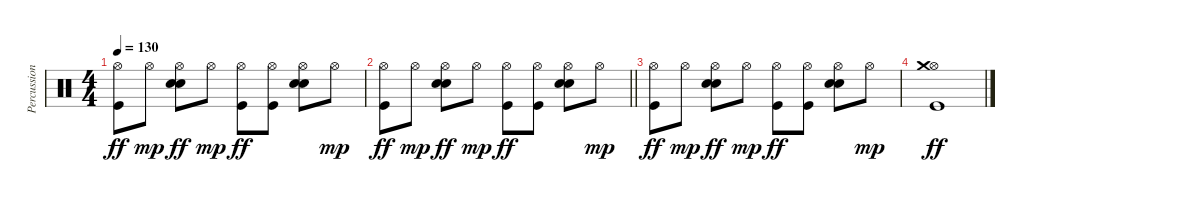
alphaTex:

\track ("Percussions" "Percussion") {instrument percussion}
\staff {score}
\articulation defaults
\ts (4 4)
\tempo 130
\clef neutral
\ks c
("Hi-Hat (open)" "Kick (hit)").8{dy ff} "Hi-Hat (open)".8{dy mp} ("Hi-Hat (open)" "Snare (hit) 2" "Electric Snare (hit)").8{dy ff} "Hi-Hat (open)".8{dy mp} ("Hi-Hat (open)" "Kick (hit)").8{dy ff} ("Hi-Hat (open)" "Kick (hit)").8 ("Hi-Hat (open)" "Snare (hit) 2" "Electric Snare (hit)").8 "Hi-Hat (open)".8{dy mp} |
\barLineRight lightlight
("Hi-Hat (open)" "Kick (hit)").8{dy ff} "Hi-Hat (open)".8{dy mp} ("Hi-Hat (open)" "Snare (hit) 2" "Electric Snare (hit)").8{dy ff} "Hi-Hat (open)".8{dy mp} ("Hi-Hat (open)" "Kick (hit)").8{dy ff} ("Hi-Hat (open)" "Kick (hit)").8 ("Hi-Hat (open)" "Snare (hit) 2" "Electric Snare (hit)").8 "Hi-Hat (open)".8{dy mp} |
("Hi-Hat (open)" "Kick (hit)").8{dy ff} "Hi-Hat (open)".8{dy mp} ("Hi-Hat (open)" "Snare (hit) 2" "Electric Snare (hit)").8{dy ff} "Hi-Hat (open)".8{dy mp} ("Hi-Hat (open)" "Kick (hit)").8{dy ff} ("Hi-Hat (open)" "Kick (hit)").8 ("Hi-Hat (open)" "Snare (hit) 2" "Electric Snare (hit)").8 "Hi-Hat (open)".8{dy mp} |
("Hi-Hat (open)" "Crash medium (hit)" "Kick (hit)").1{dy ff}
